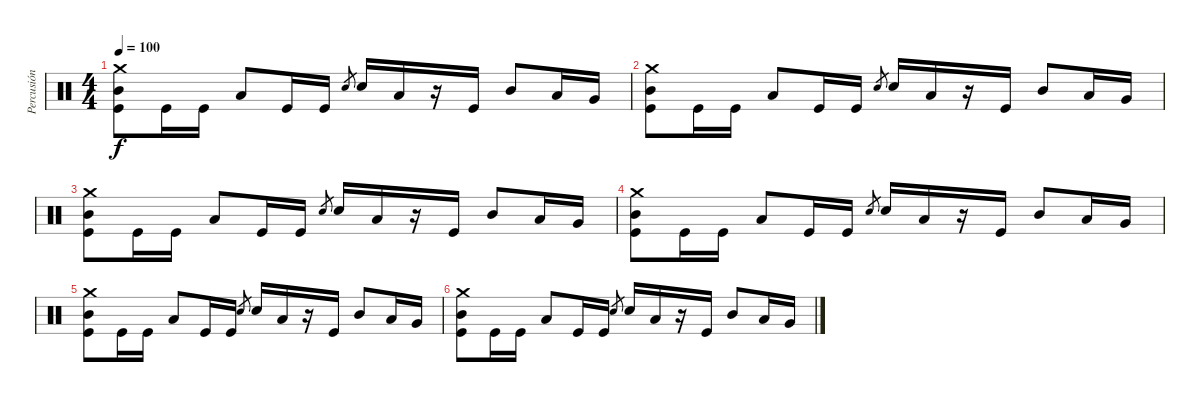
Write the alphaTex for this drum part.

\track ("Percusión" "Percusión") {instrument percussion}
\staff {score}
\articulation defaults
\ts (4 4)
\tempo 100
\clef neutral
\ks c
("Crash medium (hit)" "Mid Tom (hit)" "Kick (hit)").8{dy f} "Kick (hit)".16 "Kick (hit)".16 "Low Tom (hit)".8 "Kick (hit)".16 "Kick (hit)".16 "Electric Snare (hit)".8{gr} "Electric Snare (hit)".16 "Low Tom (hit)".16 r.16 "Kick (hit)".16 "Mid Tom (hit)".8 "Low Tom (hit)".16 "Very Low Tom (hit)".16 |
("Crash medium (hit)" "Mid Tom (hit)" "Kick (hit)").8 "Kick (hit)".16 "Kick (hit)".16 "Low Tom (hit)".8 "Kick (hit)".16 "Kick (hit)".16 "Electric Snare (hit)".8{gr} "Electric Snare (hit)".16 "Low Tom (hit)".16 r.16 "Kick (hit)".16 "Mid Tom (hit)".8 "Low Tom (hit)".16 "Very Low Tom (hit)".16 |
("Crash medium (hit)" "Mid Tom (hit)" "Kick (hit)").8 "Kick (hit)".16 "Kick (hit)".16 "Low Tom (hit)".8 "Kick (hit)".16 "Kick (hit)".16 "Electric Snare (hit)".8{gr} "Electric Snare (hit)".16 "Low Tom (hit)".16 r.16 "Kick (hit)".16 "Mid Tom (hit)".8 "Low Tom (hit)".16 "Very Low Tom (hit)".16 |
("Crash medium (hit)" "Mid Tom (hit)" "Kick (hit)").8 "Kick (hit)".16 "Kick (hit)".16 "Low Tom (hit)".8 "Kick (hit)".16 "Kick (hit)".16 "Electric Snare (hit)".8{gr} "Electric Snare (hit)".16 "Low Tom (hit)".16 r.16 "Kick (hit)".16 "Mid Tom (hit)".8 "Low Tom (hit)".16 "Very Low Tom (hit)".16 |
("Crash medium (hit)" "Mid Tom (hit)" "Kick (hit)").8 "Kick (hit)".16 "Kick (hit)".16 "Low Tom (hit)".8 "Kick (hit)".16 "Kick (hit)".16 "Electric Snare (hit)".8{gr} "Electric Snare (hit)".16 "Low Tom (hit)".16 r.16 "Kick (hit)".16 "Mid Tom (hit)".8 "Low Tom (hit)".16 "Very Low Tom (hit)".16 |
("Crash medium (hit)" "Mid Tom (hit)" "Kick (hit)").8 "Kick (hit)".16 "Kick (hit)".16 "Low Tom (hit)".8 "Kick (hit)".16 "Kick (hit)".16 "Electric Snare (hit)".8{gr} "Electric Snare (hit)".16 "Low Tom (hit)".16 r.16 "Kick (hit)".16 "Mid Tom (hit)".8 "Low Tom (hit)".16 "Very Low Tom (hit)".16
